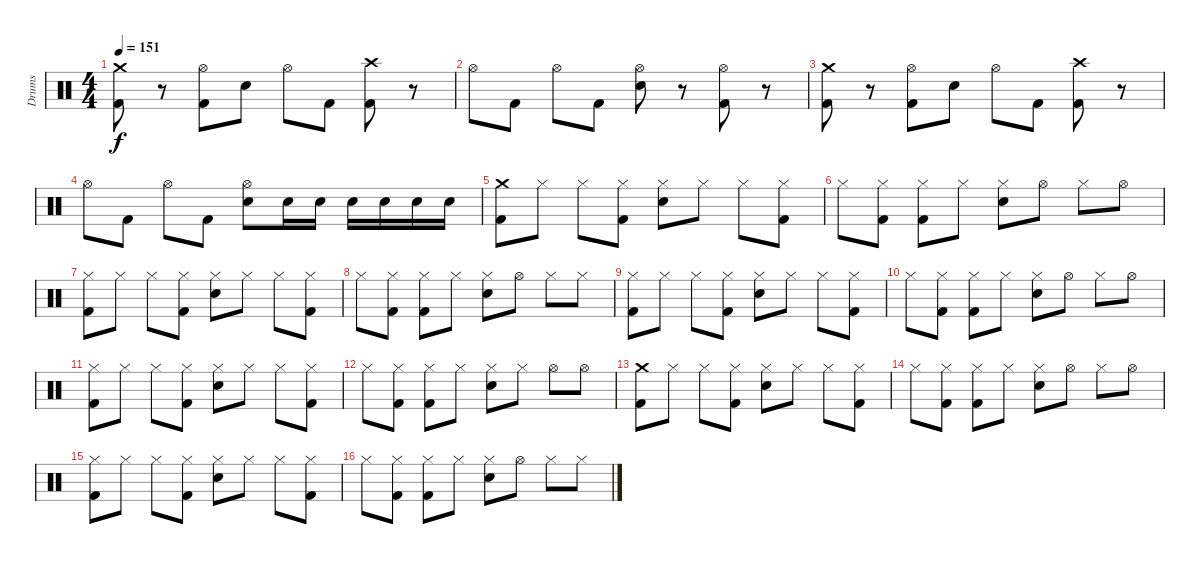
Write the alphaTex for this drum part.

\track ("Drums" "Drums") {instrument percussion}
\staff {score}
\articulation defaults
\ts (4 4)
\tempo 151
\clef neutral
\ks c
("Crash medium (hit)" "Kick (hit) 2").8{dy f} r.8 ("Hi-Hat (open)" "Kick (hit) 2").8 "Snare (hit) 2".8 "Hi-Hat (open)".8 "Kick (hit) 2".8 ("Crash high (hit)" "Kick (hit) 2").8 r.8 |
"Hi-Hat (open)".8 "Kick (hit) 2".8 "Hi-Hat (open)".8 "Kick (hit) 2".8 ("Hi-Hat (open)" "Snare (hit) 2").8 r.8 ("Hi-Hat (open)" "Kick (hit) 2").8 r.8 |
("Crash medium (hit)" "Kick (hit) 2").8 r.8 ("Hi-Hat (open)" "Kick (hit) 2").8 "Snare (hit) 2".8 "Hi-Hat (open)".8 "Kick (hit) 2".8 ("Crash high (hit)" "Kick (hit) 2").8 r.8 |
"Hi-Hat (open)".8 "Kick (hit) 2".8 "Hi-Hat (open)".8 "Kick (hit) 2".8 ("Hi-Hat (open)" "Snare (hit) 2").8 "Snare (hit) 2".16 "Snare (hit) 2".16 "Snare (hit) 2".16 "Snare (hit) 2".16 "Snare (hit) 2".16 "Snare (hit) 2".16 |
("Crash medium (hit)" "Kick (hit) 2").8 "Hi-Hat (closed)".8 "Hi-Hat (closed)".8 ("Hi-Hat (closed)" "Kick (hit) 2").8 ("Hi-Hat (closed)" "Snare (hit) 2").8 "Hi-Hat (closed)".8 "Hi-Hat (closed)".8 ("Hi-Hat (closed)" "Kick (hit) 2").8 |
"Hi-Hat (closed)".8 ("Hi-Hat (closed)" "Kick (hit) 2").8 ("Hi-Hat (closed)" "Kick (hit) 2").8 "Hi-Hat (closed)".8 ("Hi-Hat (closed)" "Snare (hit) 2").8 "Hi-Hat (open)".8 "Hi-Hat (closed)".8 "Hi-Hat (open)".8 |
("Hi-Hat (closed)" "Kick (hit) 2").8 "Hi-Hat (closed)".8 "Hi-Hat (closed)".8 ("Hi-Hat (closed)" "Kick (hit) 2").8 ("Hi-Hat (closed)" "Snare (hit) 2").8 "Hi-Hat (closed)".8 "Hi-Hat (closed)".8 ("Hi-Hat (closed)" "Kick (hit) 2").8 |
"Hi-Hat (closed)".8 ("Hi-Hat (closed)" "Kick (hit) 2").8 ("Hi-Hat (closed)" "Kick (hit) 2").8 "Hi-Hat (closed)".8 ("Hi-Hat (closed)" "Snare (hit) 2").8 "Hi-Hat (open)".8 "Hi-Hat (closed)".8 "Hi-Hat (closed)".8 |
("Hi-Hat (closed)" "Kick (hit) 2").8 "Hi-Hat (closed)".8 "Hi-Hat (closed)".8 ("Hi-Hat (closed)" "Kick (hit) 2").8 ("Hi-Hat (closed)" "Snare (hit) 2").8 "Hi-Hat (closed)".8 "Hi-Hat (closed)".8 ("Hi-Hat (closed)" "Kick (hit) 2").8 |
"Hi-Hat (closed)".8 ("Hi-Hat (closed)" "Kick (hit) 2").8 ("Hi-Hat (closed)" "Kick (hit) 2").8 "Hi-Hat (closed)".8 ("Hi-Hat (closed)" "Snare (hit) 2").8 "Hi-Hat (open)".8 "Hi-Hat (closed)".8 "Hi-Hat (open)".8 |
("Hi-Hat (closed)" "Kick (hit) 2").8 "Hi-Hat (closed)".8 "Hi-Hat (closed)".8 ("Hi-Hat (closed)" "Kick (hit) 2").8 ("Hi-Hat (closed)" "Snare (hit) 2").8 "Hi-Hat (closed)".8 "Hi-Hat (closed)".8 ("Hi-Hat (closed)" "Kick (hit) 2").8 |
"Hi-Hat (closed)".8 ("Hi-Hat (closed)" "Kick (hit) 2").8 ("Hi-Hat (closed)" "Kick (hit) 2").8 "Hi-Hat (closed)".8 ("Hi-Hat (closed)" "Snare (hit) 2").8 "Hi-Hat (closed)".8 "Hi-Hat (open)".8 "Hi-Hat (open)".8 |
("Crash medium (hit)" "Kick (hit) 2").8 "Hi-Hat (closed)".8 "Hi-Hat (closed)".8 ("Hi-Hat (closed)" "Kick (hit) 2").8 ("Hi-Hat (closed)" "Snare (hit) 2").8 "Hi-Hat (closed)".8 "Hi-Hat (closed)".8 ("Hi-Hat (closed)" "Kick (hit) 2").8 |
"Hi-Hat (closed)".8 ("Hi-Hat (closed)" "Kick (hit) 2").8 ("Hi-Hat (closed)" "Kick (hit) 2").8 "Hi-Hat (closed)".8 ("Hi-Hat (closed)" "Snare (hit) 2").8 "Hi-Hat (open)".8 "Hi-Hat (closed)".8 "Hi-Hat (open)".8 |
("Hi-Hat (closed)" "Kick (hit) 2").8 "Hi-Hat (closed)".8 "Hi-Hat (closed)".8 ("Hi-Hat (closed)" "Kick (hit) 2").8 ("Hi-Hat (closed)" "Snare (hit) 2").8 "Hi-Hat (closed)".8 "Hi-Hat (closed)".8 ("Hi-Hat (closed)" "Kick (hit) 2").8 |
"Hi-Hat (closed)".8 ("Hi-Hat (closed)" "Kick (hit) 2").8 ("Hi-Hat (closed)" "Kick (hit) 2").8 "Hi-Hat (closed)".8 ("Hi-Hat (closed)" "Snare (hit) 2").8 "Hi-Hat (open)".8 "Hi-Hat (closed)".8 "Hi-Hat (closed)".8
